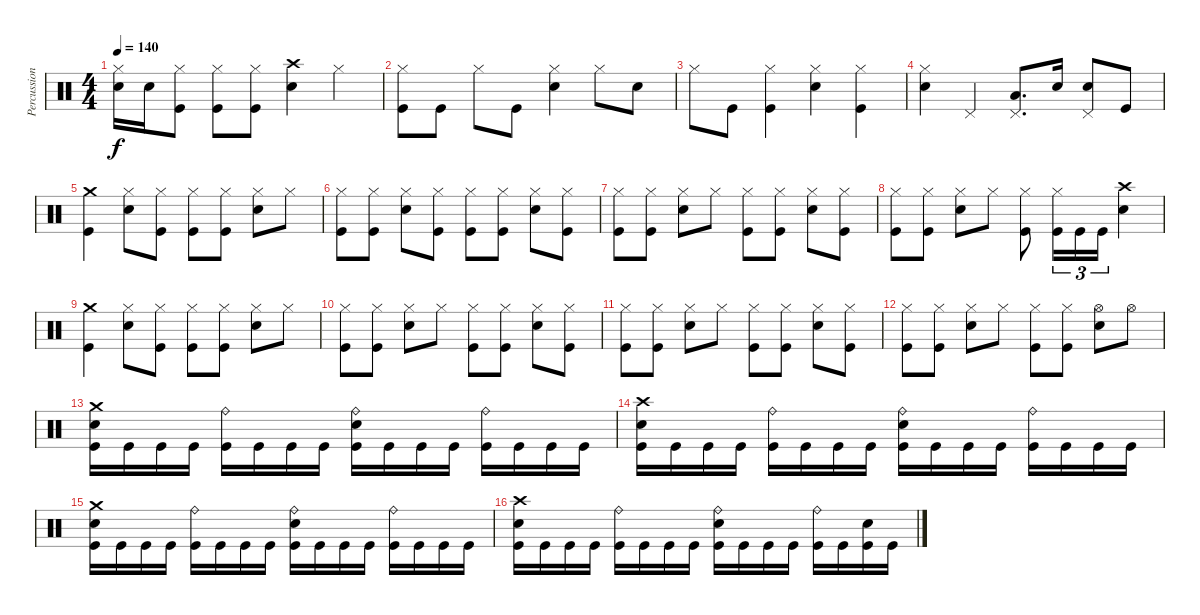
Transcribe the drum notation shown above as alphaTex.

\track ("Percussion" "Percussion") {instrument percussion}
\staff {score}
\articulation defaults
\ts (4 4)
\tempo 140
\clef neutral
\ks c
("Snare (hit) 2" "Hi-Hat (closed)").16{dy f} "Snare (hit) 2".16 ("Kick (hit)" "Hi-Hat (closed)").8 ("Kick (hit)" "Hi-Hat (closed)").8 ("Kick (hit)" "Hi-Hat (closed)").8 ("Snare (hit) 2" "Crash high (hit)").4 "Hi-Hat (closed)".4 |
("Kick (hit)" "Hi-Hat (closed)").8 "Kick (hit)".8 "Hi-Hat (closed)".8 "Kick (hit)".8 ("Snare (hit) 2" "Hi-Hat (closed)").4 "Hi-Hat (closed)".8 "Snare (hit) 2".8 |
"Hi-Hat (closed)".8 "Kick (hit)".8 ("Kick (hit)" "Hi-Hat (closed)").4 ("Snare (hit) 2" "Hi-Hat (closed)").4 ("Kick (hit)" "Hi-Hat (closed)").4 |
("Snare (hit) 2" "Hi-Hat (closed)").4 "Pedal Hi-Hat (hit)".4 ("Low Tom (hit)" "Pedal Hi-Hat (hit)").8{d} "Snare (hit) 2".16 ("Snare (hit) 2" "Pedal Hi-Hat (hit)").8 "Kick (hit)".8 |
("Kick (hit)" "Crash medium (hit)").4 ("Snare (hit) 2" "Hi-Hat (closed)").8 ("Kick (hit)" "Hi-Hat (closed)").8 ("Kick (hit)" "Hi-Hat (closed)").8 ("Kick (hit)" "Hi-Hat (closed)").8 ("Snare (hit) 2" "Hi-Hat (closed)").8 "Hi-Hat (closed)".8 |
("Kick (hit)" "Hi-Hat (closed)").8 ("Kick (hit)" "Hi-Hat (closed)").8 ("Snare (hit) 2" "Hi-Hat (closed)").8 ("Kick (hit)" "Hi-Hat (closed)").8 ("Kick (hit)" "Hi-Hat (closed)").8 ("Kick (hit)" "Hi-Hat (closed)").8 ("Snare (hit) 2" "Hi-Hat (closed)").8 ("Kick (hit)" "Hi-Hat (closed)").8 |
("Kick (hit)" "Hi-Hat (closed)").8 ("Kick (hit)" "Hi-Hat (closed)").8 ("Snare (hit) 2" "Hi-Hat (closed)").8 "Hi-Hat (closed)".8 ("Kick (hit)" "Hi-Hat (closed)").8 ("Kick (hit)" "Hi-Hat (closed)").8 ("Snare (hit) 2" "Hi-Hat (closed)").8 ("Kick (hit)" "Hi-Hat (closed)").8 |
("Kick (hit)" "Hi-Hat (closed)").8 ("Kick (hit)" "Hi-Hat (closed)").8 ("Snare (hit) 2" "Hi-Hat (closed)").8 "Hi-Hat (closed)".8 ("Kick (hit)" "Hi-Hat (closed)").8 ("Kick (hit)" "Hi-Hat (closed)").16{tu (3 2)} "Kick (hit)".16{tu (3 2)} "Kick (hit)".16{tu (3 2)} ("Snare (hit) 2" "Crash high (hit)").4 |
("Kick (hit)" "Crash medium (hit)").4 ("Snare (hit) 2" "Hi-Hat (closed)").8 ("Kick (hit)" "Hi-Hat (closed)").8 ("Kick (hit)" "Hi-Hat (closed)").8 ("Kick (hit)" "Hi-Hat (closed)").8 ("Snare (hit) 2" "Hi-Hat (closed)").8 "Hi-Hat (closed)".8 |
("Kick (hit)" "Hi-Hat (closed)").8 ("Kick (hit)" "Hi-Hat (closed)").8 ("Snare (hit) 2" "Hi-Hat (closed)").8 "Hi-Hat (closed)".8 ("Kick (hit)" "Hi-Hat (closed)").8 ("Kick (hit)" "Hi-Hat (closed)").8 ("Snare (hit) 2" "Hi-Hat (closed)").8 ("Kick (hit)" "Hi-Hat (closed)").8 |
("Kick (hit)" "Hi-Hat (closed)").8 ("Kick (hit)" "Hi-Hat (closed)").8 ("Snare (hit) 2" "Hi-Hat (closed)").8 "Hi-Hat (closed)".8 ("Kick (hit)" "Hi-Hat (closed)").8 ("Kick (hit)" "Hi-Hat (closed)").8 ("Snare (hit) 2" "Hi-Hat (closed)").8 ("Kick (hit)" "Hi-Hat (closed)").8 |
("Kick (hit)" "Hi-Hat (closed)").8 ("Kick (hit)" "Hi-Hat (closed)").8 ("Snare (hit) 2" "Hi-Hat (closed)").8 "Hi-Hat (closed)".8 ("Kick (hit)" "Hi-Hat (closed)").8 ("Kick (hit)" "Hi-Hat (closed)").8 ("Snare (hit) 2" "Hi-Hat (open)").8 "Hi-Hat (open)".8 |
("Kick (hit)" "Snare (hit) 2" "Crash medium (hit)").16 "Kick (hit)".16 "Kick (hit)".16 "Kick (hit)".16 ("Kick (hit)" "Ride (bell)").16 "Kick (hit)".16 "Kick (hit)".16 "Kick (hit)".16 ("Kick (hit)" "Snare (hit) 2" "Ride (bell)").16 "Kick (hit)".16 "Kick (hit)".16 "Kick (hit)".16 ("Kick (hit)" "Ride (bell)").16 "Kick (hit)".16 "Kick (hit)".16 "Kick (hit)".16 |
("Kick (hit)" "Snare (hit) 2" "Crash high (hit)").16 "Kick (hit)".16 "Kick (hit)".16 "Kick (hit)".16 ("Kick (hit)" "Ride (bell)").16 "Kick (hit)".16 "Kick (hit)".16 "Kick (hit)".16 ("Kick (hit)" "Snare (hit) 2" "Ride (bell)").16 "Kick (hit)".16 "Kick (hit)".16 "Kick (hit)".16 ("Kick (hit)" "Ride (bell)").16 "Kick (hit)".16 "Kick (hit)".16 "Kick (hit)".16 |
("Kick (hit)" "Snare (hit) 2" "Crash medium (hit)").16 "Kick (hit)".16 "Kick (hit)".16 "Kick (hit)".16 ("Kick (hit)" "Ride (bell)").16 "Kick (hit)".16 "Kick (hit)".16 "Kick (hit)".16 ("Kick (hit)" "Snare (hit) 2" "Ride (bell)").16 "Kick (hit)".16 "Kick (hit)".16 "Kick (hit)".16 ("Kick (hit)" "Ride (bell)").16 "Kick (hit)".16 "Kick (hit)".16 "Kick (hit)".16 |
("Kick (hit)" "Snare (hit) 2" "Crash high (hit)").16 "Kick (hit)".16 "Kick (hit)".16 "Kick (hit)".16 ("Kick (hit)" "Ride (bell)").16 "Kick (hit)".16 "Kick (hit)".16 "Kick (hit)".16 ("Kick (hit)" "Snare (hit) 2" "Ride (bell)").16 "Kick (hit)".16 "Kick (hit)".16 "Kick (hit)".16 ("Kick (hit)" "Ride (bell)").16 "Kick (hit)".16 ("Kick (hit)" "Snare (hit) 2").16 "Kick (hit)".16
